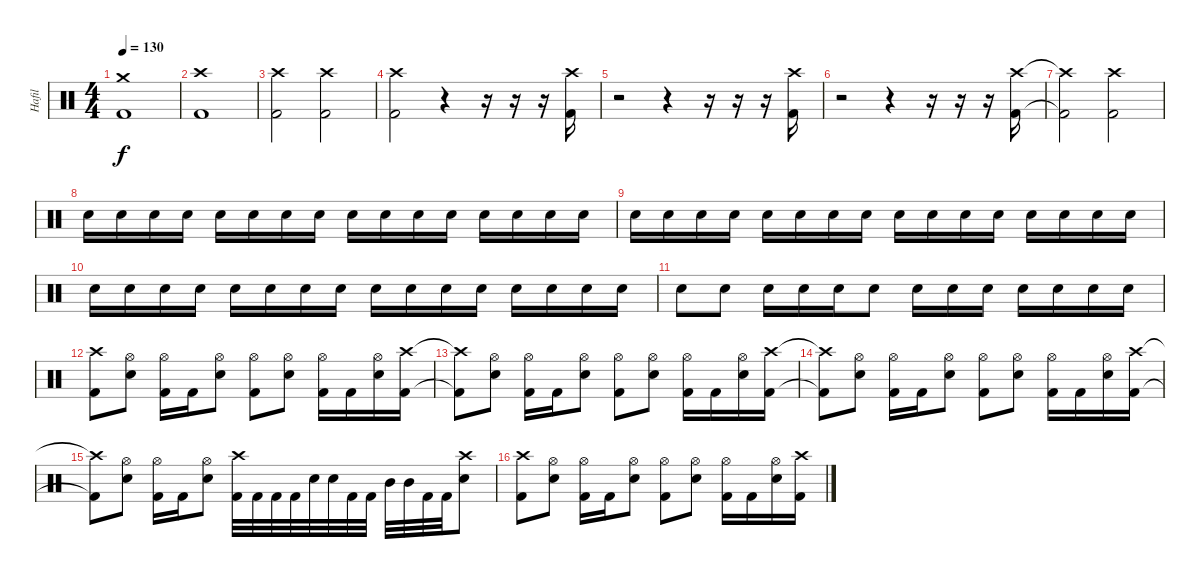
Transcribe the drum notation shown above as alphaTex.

\track ("Hafil" "Hafil") {instrument percussion}
\staff {score}
\articulation defaults
\ts (4 4)
\tempo 130
\clef neutral
\ks c
("Crash medium (hit)" "Kick (hit) 2").1{dy f} |
("Kick (hit) 2" "Crash high (hit)").1 |
("Crash high (hit)" "Kick (hit) 2").2 ("Crash high (hit)" "Kick (hit) 2").2 |
("Kick (hit) 2" "Crash high (hit)").2 r.4 r.16 r.16 r.16 ("Crash high (hit)" "Kick (hit) 2").16 |
r.2 r.4 r.16 r.16 r.16 ("Crash high (hit)" "Kick (hit) 2").16 |
r.2 r.4 r.16 r.16 r.16 ("Crash high (hit)" "Kick (hit) 2").16 |
("Crash high (hit)"{t} "Kick (hit) 2"{t}).2 ("Crash high (hit)" "Kick (hit) 2").2 |
"Electric Snare (hit)".16 "Electric Snare (hit)".16 "Electric Snare (hit)".16 "Electric Snare (hit)".16 "Electric Snare (hit)".16 "Electric Snare (hit)".16 "Electric Snare (hit)".16 "Electric Snare (hit)".16 "Electric Snare (hit)".16 "Electric Snare (hit)".16 "Electric Snare (hit)".16 "Electric Snare (hit)".16 "Electric Snare (hit)".16 "Electric Snare (hit)".16 "Electric Snare (hit)".16 "Electric Snare (hit)".16 |
"Electric Snare (hit)".16 "Electric Snare (hit)".16 "Electric Snare (hit)".16 "Electric Snare (hit)".16 "Electric Snare (hit)".16 "Electric Snare (hit)".16 "Electric Snare (hit)".16 "Electric Snare (hit)".16 "Electric Snare (hit)".16 "Electric Snare (hit)".16 "Electric Snare (hit)".16 "Electric Snare (hit)".16 "Electric Snare (hit)".16 "Electric Snare (hit)".16 "Electric Snare (hit)".16 "Electric Snare (hit)".16 |
"Electric Snare (hit)".16 "Electric Snare (hit)".16 "Electric Snare (hit)".16 "Electric Snare (hit)".16 "Electric Snare (hit)".16 "Electric Snare (hit)".16 "Electric Snare (hit)".16 "Electric Snare (hit)".16 "Electric Snare (hit)".16 "Electric Snare (hit)".16 "Electric Snare (hit)".16 "Electric Snare (hit)".16 "Electric Snare (hit)".16 "Electric Snare (hit)".16 "Electric Snare (hit)".16 "Electric Snare (hit)".16 |
"Electric Snare (hit)".8 "Electric Snare (hit)".8 "Electric Snare (hit)".16 "Electric Snare (hit)".16 "Electric Snare (hit)".16 "Electric Snare (hit)".8 "Electric Snare (hit)".16 "Electric Snare (hit)".16 "Electric Snare (hit)".16 "Electric Snare (hit)".16 "Electric Snare (hit)".16 "Electric Snare (hit)".16 "Electric Snare (hit)".16 |
("Kick (hit) 2" "Crash high (hit)").8 ("Electric Snare (hit)" "Hi-Hat (open)").8 ("Kick (hit) 2" "Hi-Hat (open)").16 "Kick (hit) 2".16 ("Electric Snare (hit)" "Hi-Hat (open)").8 ("Kick (hit) 2" "Hi-Hat (open)").8 ("Electric Snare (hit)" "Hi-Hat (open)").8 ("Kick (hit) 2" "Hi-Hat (open)").16 "Kick (hit) 2".16 ("Electric Snare (hit)" "Hi-Hat (open)").16 ("Kick (hit) 2" "Crash high (hit)").16 |
("Kick (hit) 2"{t} "Crash high (hit)"{t}).8 ("Electric Snare (hit)" "Hi-Hat (open)").8 ("Kick (hit) 2" "Hi-Hat (open)").16 "Kick (hit) 2".16 ("Electric Snare (hit)" "Hi-Hat (open)").8 ("Kick (hit) 2" "Hi-Hat (open)").8 ("Electric Snare (hit)" "Hi-Hat (open)").8 ("Kick (hit) 2" "Hi-Hat (open)").16 "Kick (hit) 2".16 ("Electric Snare (hit)" "Hi-Hat (open)").16 ("Kick (hit) 2" "Crash high (hit)").16 |
("Kick (hit) 2"{t} "Crash high (hit)"{t}).8 ("Electric Snare (hit)" "Hi-Hat (open)").8 ("Kick (hit) 2" "Hi-Hat (open)").16 "Kick (hit) 2".16 ("Electric Snare (hit)" "Hi-Hat (open)").8 ("Kick (hit) 2" "Hi-Hat (open)").8 ("Electric Snare (hit)" "Hi-Hat (open)").8 ("Kick (hit) 2" "Hi-Hat (open)").16 "Kick (hit) 2".16 ("Electric Snare (hit)" "Hi-Hat (open)").16 ("Kick (hit) 2" "Crash high (hit)").16 |
("Kick (hit) 2"{t} "Crash high (hit)"{t}).8 ("Electric Snare (hit)" "Hi-Hat (open)").8 ("Kick (hit) 2" "Hi-Hat (open)").16 "Kick (hit) 2".16 ("Electric Snare (hit)" "Hi-Hat (open)").8 ("Kick (hit) 2" "Crash high (hit)").32 "Kick (hit) 2".32 "Kick (hit) 2".32 "Kick (hit) 2".32 "Electric Snare (hit)".32 "Electric Snare (hit)".32 "Kick (hit) 2".32 "Kick (hit) 2".32 "Mid Tom (hit)".32 "Mid Tom (hit)".32 "Kick (hit) 2".32 "Kick (hit) 2".32 ("Electric Snare (hit)" "Crash high (hit)").8 |
("Kick (hit) 2" "Crash high (hit)").8 ("Electric Snare (hit)" "Hi-Hat (open)").8 ("Kick (hit) 2" "Hi-Hat (open)").16 "Kick (hit) 2".16 ("Electric Snare (hit)" "Hi-Hat (open)").8 ("Kick (hit) 2" "Hi-Hat (open)").8 ("Electric Snare (hit)" "Hi-Hat (open)").8 ("Kick (hit) 2" "Hi-Hat (open)").16 "Kick (hit) 2".16 ("Electric Snare (hit)" "Hi-Hat (open)").16 ("Kick (hit) 2" "Crash high (hit)").16
